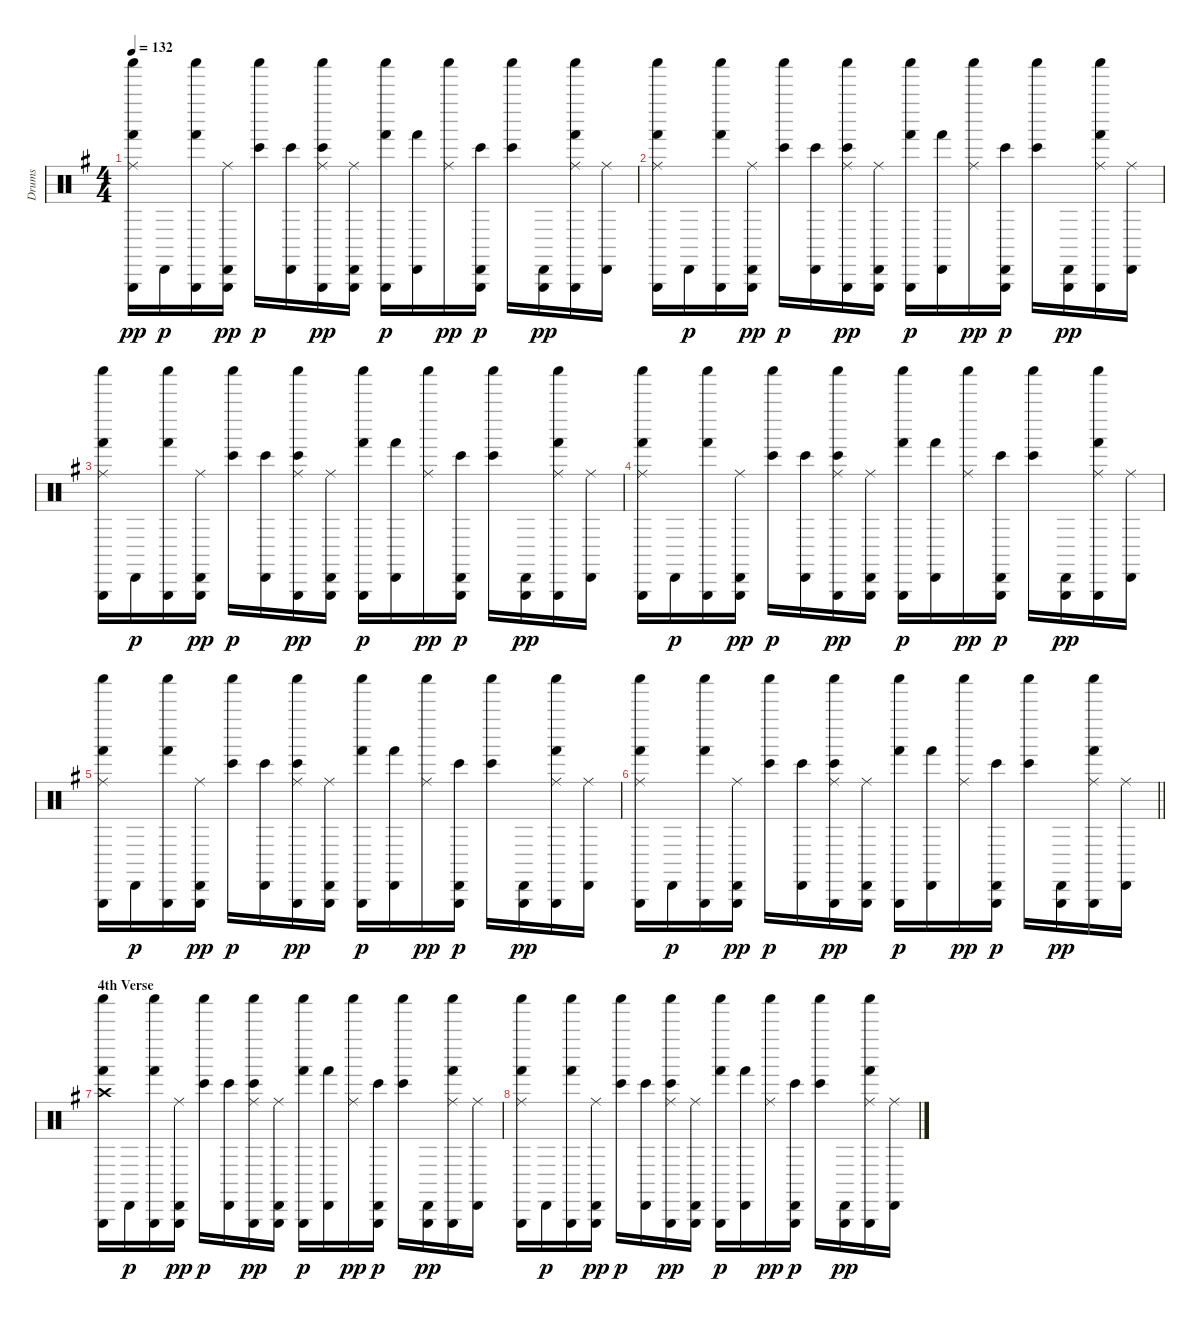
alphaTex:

\track ("Drums" "Drums") {instrument percussion}
\staff {score}
\articulation defaults
\ts (4 4)
\tempo 132
\clef neutral
\ks g
("Shaker (hit)" "Triangle (hit)" "Hand (hit)" "Ride (middle)").16{dy pp} "Cabasa (hit)".16{dy p} ("Shaker (hit)" "Triangle (hit)" "Hand (hit)").16 ("Cabasa (hit)" "Triangle (hit)" "Ride (middle)").16{dy pp} ("Shaker (hit)" "Bongo High (hit)").16{dy p} ("Cabasa (hit)" "Bongo High (hit)").16 ("Shaker (hit)" "Triangle (hit)" "Bongo High (hit)" "Ride (middle)").16{dy pp} ("Cabasa (hit)" "Triangle (hit)" "Ride (middle)").16 ("Shaker (hit)" "Triangle (hit)" "Hand (hit)").16{dy p} ("Cabasa (hit)" "Hand (hit)").16 ("Shaker (hit)" "Ride (middle)").16{dy pp} ("Cabasa (hit)" "Triangle (hit)" "Bongo High (hit)").16{dy p} ("Shaker (hit)" "Bongo High (hit)").16 ("Cabasa (hit)" "Triangle (hit)").16{dy pp} ("Shaker (hit)" "Triangle (hit)" "Hand (hit)" "Ride (middle)").16 ("Cabasa (hit)" "Ride (middle)").16 |
("Shaker (hit)" "Triangle (hit)" "Hand (hit)" "Ride (middle)").16 "Cabasa (hit)".16{dy p} ("Shaker (hit)" "Triangle (hit)" "Hand (hit)").16 ("Cabasa (hit)" "Triangle (hit)" "Ride (middle)").16{dy pp} ("Shaker (hit)" "Bongo High (hit)").16{dy p} ("Cabasa (hit)" "Bongo High (hit)").16 ("Shaker (hit)" "Triangle (hit)" "Bongo High (hit)" "Ride (middle)").16{dy pp} ("Cabasa (hit)" "Triangle (hit)" "Ride (middle)").16 ("Shaker (hit)" "Triangle (hit)" "Hand (hit)").16{dy p} ("Cabasa (hit)" "Hand (hit)").16 ("Shaker (hit)" "Ride (middle)").16{dy pp} ("Cabasa (hit)" "Triangle (hit)" "Bongo High (hit)").16{dy p} ("Shaker (hit)" "Bongo High (hit)").16 ("Cabasa (hit)" "Triangle (hit)").16{dy pp} ("Shaker (hit)" "Triangle (hit)" "Hand (hit)" "Ride (middle)").16 ("Cabasa (hit)" "Ride (middle)").16 |
("Shaker (hit)" "Triangle (hit)" "Hand (hit)" "Ride (middle)").16 "Cabasa (hit)".16{dy p} ("Shaker (hit)" "Triangle (hit)" "Hand (hit)").16 ("Cabasa (hit)" "Triangle (hit)" "Ride (middle)").16{dy pp} ("Shaker (hit)" "Bongo High (hit)").16{dy p} ("Cabasa (hit)" "Bongo High (hit)").16 ("Shaker (hit)" "Triangle (hit)" "Bongo High (hit)" "Ride (middle)").16{dy pp} ("Cabasa (hit)" "Triangle (hit)" "Ride (middle)").16 ("Shaker (hit)" "Triangle (hit)" "Hand (hit)").16{dy p} ("Cabasa (hit)" "Hand (hit)").16 ("Shaker (hit)" "Ride (middle)").16{dy pp} ("Cabasa (hit)" "Triangle (hit)" "Bongo High (hit)").16{dy p} ("Shaker (hit)" "Bongo High (hit)").16 ("Cabasa (hit)" "Triangle (hit)").16{dy pp} ("Shaker (hit)" "Triangle (hit)" "Hand (hit)" "Ride (middle)").16 ("Cabasa (hit)" "Ride (middle)").16 |
("Shaker (hit)" "Triangle (hit)" "Hand (hit)" "Ride (middle)").16 "Cabasa (hit)".16{dy p} ("Shaker (hit)" "Triangle (hit)" "Hand (hit)").16 ("Cabasa (hit)" "Triangle (hit)" "Ride (middle)").16{dy pp} ("Shaker (hit)" "Bongo High (hit)").16{dy p} ("Cabasa (hit)" "Bongo High (hit)").16 ("Shaker (hit)" "Triangle (hit)" "Bongo High (hit)" "Ride (middle)").16{dy pp} ("Cabasa (hit)" "Triangle (hit)" "Ride (middle)").16 ("Shaker (hit)" "Triangle (hit)" "Hand (hit)").16{dy p} ("Cabasa (hit)" "Hand (hit)").16 ("Shaker (hit)" "Ride (middle)").16{dy pp} ("Cabasa (hit)" "Triangle (hit)" "Bongo High (hit)").16{dy p} ("Shaker (hit)" "Bongo High (hit)").16 ("Cabasa (hit)" "Triangle (hit)").16{dy pp} ("Shaker (hit)" "Triangle (hit)" "Hand (hit)" "Ride (middle)").16 ("Cabasa (hit)" "Ride (middle)").16 |
("Shaker (hit)" "Triangle (hit)" "Hand (hit)" "Ride (middle)").16 "Cabasa (hit)".16{dy p} ("Shaker (hit)" "Triangle (hit)" "Hand (hit)").16 ("Cabasa (hit)" "Triangle (hit)" "Ride (middle)").16{dy pp} ("Shaker (hit)" "Bongo High (hit)").16{dy p} ("Cabasa (hit)" "Bongo High (hit)").16 ("Shaker (hit)" "Triangle (hit)" "Bongo High (hit)" "Ride (middle)").16{dy pp} ("Cabasa (hit)" "Triangle (hit)" "Ride (middle)").16 ("Shaker (hit)" "Triangle (hit)" "Hand (hit)").16{dy p} ("Cabasa (hit)" "Hand (hit)").16 ("Shaker (hit)" "Ride (middle)").16{dy pp} ("Cabasa (hit)" "Triangle (hit)" "Bongo High (hit)").16{dy p} ("Shaker (hit)" "Bongo High (hit)").16 ("Cabasa (hit)" "Triangle (hit)").16{dy pp} ("Shaker (hit)" "Triangle (hit)" "Hand (hit)" "Ride (middle)").16 ("Cabasa (hit)" "Ride (middle)").16 |
\barLineRight lightlight
("Shaker (hit)" "Triangle (hit)" "Hand (hit)" "Ride (middle)").16 "Cabasa (hit)".16{dy p} ("Shaker (hit)" "Triangle (hit)" "Hand (hit)").16 ("Cabasa (hit)" "Triangle (hit)" "Ride (middle)").16{dy pp} ("Shaker (hit)" "Bongo High (hit)").16{dy p} ("Cabasa (hit)" "Bongo High (hit)").16 ("Shaker (hit)" "Triangle (hit)" "Bongo High (hit)" "Ride (middle)").16{dy pp} ("Cabasa (hit)" "Triangle (hit)" "Ride (middle)").16 ("Shaker (hit)" "Triangle (hit)" "Hand (hit)").16{dy p} ("Cabasa (hit)" "Hand (hit)").16 ("Shaker (hit)" "Ride (middle)").16{dy pp} ("Cabasa (hit)" "Triangle (hit)" "Bongo High (hit)").16{dy p} ("Shaker (hit)" "Bongo High (hit)").16 ("Cabasa (hit)" "Triangle (hit)").16{dy pp} ("Shaker (hit)" "Triangle (hit)" "Hand (hit)" "Ride (middle)").16 ("Cabasa (hit)" "Ride (middle)").16 |
\section ("" "4th Verse")
("Shaker (hit)" "Triangle (hit)" "Hand (hit)" "Crash high (hit)").16 "Cabasa (hit)".16{dy p} ("Shaker (hit)" "Triangle (hit)" "Hand (hit)").16 ("Cabasa (hit)" "Triangle (hit)" "Ride (middle)").16{dy pp} ("Shaker (hit)" "Bongo High (hit)").16{dy p} ("Cabasa (hit)" "Bongo High (hit)").16 ("Shaker (hit)" "Triangle (hit)" "Bongo High (hit)" "Ride (middle)").16{dy pp} ("Cabasa (hit)" "Triangle (hit)" "Ride (middle)").16 ("Shaker (hit)" "Triangle (hit)" "Hand (hit)").16{dy p} ("Cabasa (hit)" "Hand (hit)").16 ("Shaker (hit)" "Ride (middle)").16{dy pp} ("Cabasa (hit)" "Triangle (hit)" "Bongo High (hit)").16{dy p} ("Shaker (hit)" "Bongo High (hit)").16 ("Cabasa (hit)" "Triangle (hit)").16{dy pp} ("Shaker (hit)" "Triangle (hit)" "Hand (hit)" "Ride (middle)").16 ("Cabasa (hit)" "Ride (middle)").16 |
("Shaker (hit)" "Triangle (hit)" "Hand (hit)" "Ride (middle)").16 "Cabasa (hit)".16{dy p} ("Shaker (hit)" "Triangle (hit)" "Hand (hit)").16 ("Cabasa (hit)" "Triangle (hit)" "Ride (middle)").16{dy pp} ("Shaker (hit)" "Bongo High (hit)").16{dy p} ("Cabasa (hit)" "Bongo High (hit)").16 ("Shaker (hit)" "Triangle (hit)" "Bongo High (hit)" "Ride (middle)").16{dy pp} ("Cabasa (hit)" "Triangle (hit)" "Ride (middle)").16 ("Shaker (hit)" "Triangle (hit)" "Hand (hit)").16{dy p} ("Cabasa (hit)" "Hand (hit)").16 ("Shaker (hit)" "Ride (middle)").16{dy pp} ("Cabasa (hit)" "Triangle (hit)" "Bongo High (hit)").16{dy p} ("Shaker (hit)" "Bongo High (hit)").16 ("Cabasa (hit)" "Triangle (hit)").16{dy pp} ("Shaker (hit)" "Triangle (hit)" "Hand (hit)" "Ride (middle)").16 ("Cabasa (hit)" "Ride (middle)").16
